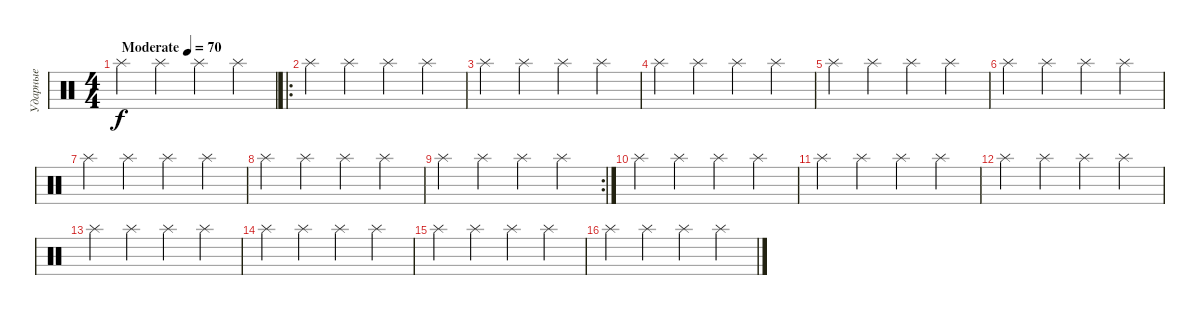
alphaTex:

\track ("Ударные" "Ударные") {instrument percussion}
\staff {score}
\articulation defaults
\ts (4 4)
\tempo (70 "Moderate")
\clef neutral
\ks c "Splash (hit)".4{dy f} "Splash (hit)".4 "Splash (hit)".4 "Splash (hit)".4
|
\ro "Splash (hit)".4 "Splash (hit)".4 "Splash (hit)".4 "Splash (hit)".4
|
"Splash (hit)".4 "Splash (hit)".4 "Splash (hit)".4 "Splash (hit)".4 |
"Splash (hit)".4 "Splash (hit)".4 "Splash (hit)".4 "Splash (hit)".4 |
"Splash (hit)".4 "Splash (hit)".4 "Splash (hit)".4 "Splash (hit)".4 |
"Splash (hit)".4 "Splash (hit)".4 "Splash (hit)".4 "Splash (hit)".4 |
"Splash (hit)".4 "Splash (hit)".4 "Splash (hit)".4 "Splash (hit)".4 |
"Splash (hit)".4 "Splash (hit)".4 "Splash (hit)".4 "Splash (hit)".4 |
\rc 2 "Splash (hit)".4 "Splash (hit)".4 "Splash (hit)".4 "Splash (hit)".4
|
"Splash (hit)".4 "Splash (hit)".4 "Splash (hit)".4 "Splash (hit)".4 |
"Splash (hit)".4 "Splash (hit)".4 "Splash (hit)".4 "Splash (hit)".4 |
"Splash (hit)".4 "Splash (hit)".4 "Splash (hit)".4 "Splash (hit)".4 |
"Splash (hit)".4 "Splash (hit)".4 "Splash (hit)".4 "Splash (hit)".4 |
"Splash (hit)".4 "Splash (hit)".4 "Splash (hit)".4 "Splash (hit)".4 |
"Splash (hit)".4 "Splash (hit)".4 "Splash (hit)".4 "Splash (hit)".4 |
"Splash (hit)".4 "Splash (hit)".4 "Splash (hit)".4 "Splash (hit)".4
